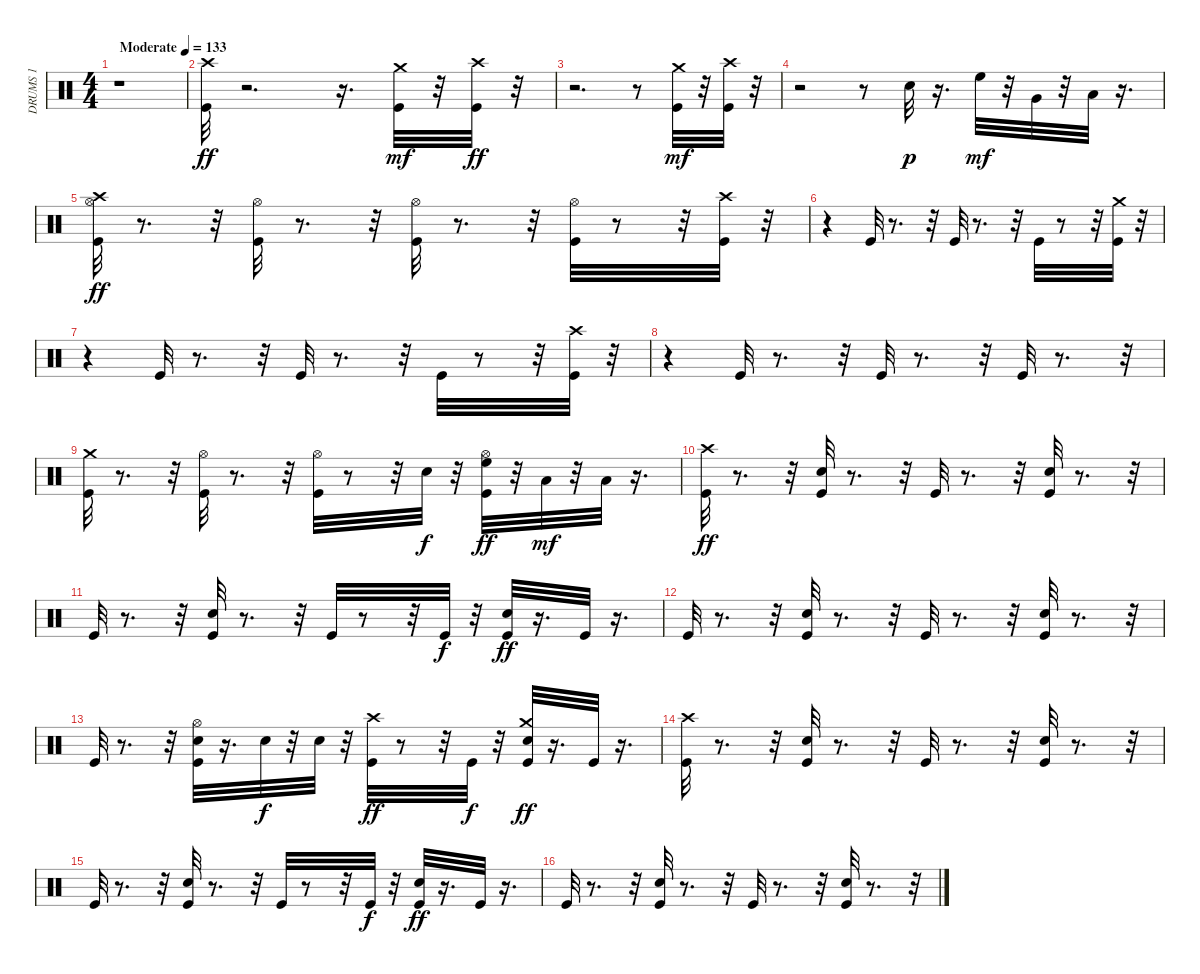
\track ("DRUMS 1                             " "DRUMS 1   ") {instrument percussion}
\staff {score}
\articulation defaults
\ts (4 4)
\tempo (133 "Moderate")
\clef neutral
\ks c
r.1{dy ff} |
("Crash high (hit)" "Kick (hit)").32 r.2{d} r.16{d} ("Crash medium (hit)" "Kick (hit)").32{dy mf} r.32 ("Crash high (hit)" "Kick (hit)").32{dy ff} r.32 |
r.2{d} r.8 ("Kick (hit)" "Crash medium (hit)").32{dy mf} r.32 ("Kick (hit)" "Crash high (hit)").32 r.32 |
r.2 r.8 "Electric Snare (hit)".32{dy p} r.16{d} "High Floor Tom (hit)".32{dy mf} r.32 "Very Low Tom (hit)".32 r.32 "Low Floor Tom (hit)".32 r.16{d} |
("Hi-Hat (open)" "Crash high (hit)" "Kick (hit)").32{dy ff} r.8{d} r.32 ("Hi-Hat (open)" "Kick (hit)").32 r.8{d} r.32 ("Hi-Hat (open)" "Kick (hit)").32 r.8{d} r.32 ("Hi-Hat (open)" "Kick (hit)").32 r.8 r.32 ("Crash high (hit)" "Kick (hit)").32 r.32 |
r.4 "Kick (hit)".32 r.8{d} r.32 "Kick (hit)".32 r.8{d} r.32 "Kick (hit)".32 r.8 r.32 ("Crash medium (hit)" "Kick (hit)").32 r.32 |
r.4 "Kick (hit)".32 r.8{d} r.32 "Kick (hit)".32 r.8{d} r.32 "Kick (hit)".32 r.8 r.32 ("Crash high (hit)" "Kick (hit)").32 r.32 |
r.4 "Kick (hit)".32 r.8{d} r.32 "Kick (hit)".32 r.8{d} r.32 "Kick (hit)".32 r.8{d} r.32 |
("Crash medium (hit)" "Kick (hit)").32 r.8{d} r.32 ("Hi-Hat (open)" "Kick (hit)").32 r.8{d} r.32 ("Hi-Hat (open)" "Kick (hit)").32 r.8 r.32 "Electric Snare (hit)".32{dy f} r.32 ("Hi-Hat (open)" "High Floor Tom (hit)" "Kick (hit)").32{dy ff} r.32 "Low Tom (hit)".32{dy mf} r.32 "Low Floor Tom (hit)".32 r.16{d} |
("Crash high (hit)" "Kick (hit)").32{dy ff} r.8{d} r.32 ("Electric Snare (hit)" "Kick (hit)").32 r.8{d} r.32 "Kick (hit)".32 r.8{d} r.32 ("Electric Snare (hit)" "Kick (hit)").32 r.8{d} r.32 |
"Kick (hit)".32 r.8{d} r.32 ("Electric Snare (hit)" "Kick (hit)").32 r.8{d} r.32 "Kick (hit)".32 r.8 r.32 "Kick (hit)".32{dy f} r.32 ("Electric Snare (hit)" "Kick (hit)").32{dy ff} r.16{d} "Kick (hit)".32 r.16{d} |
"Kick (hit)".32 r.8{d} r.32 ("Electric Snare (hit)" "Kick (hit)").32 r.8{d} r.32 "Kick (hit)".32 r.8{d} r.32 ("Electric Snare (hit)" "Kick (hit)").32 r.8{d} r.32 |
"Kick (hit)".32 r.8{d} r.32 ("Hi-Hat (open)" "Electric Snare (hit)" "Kick (hit)").32 r.16{d} "Electric Snare (hit)".32{dy f} r.32 "Electric Snare (hit)".32 r.32 ("Crash high (hit)" "Kick (hit)").32{dy ff} r.8 r.32 "Kick (hit)".32{dy f} r.32 ("Crash medium (hit)" "Electric Snare (hit)" "Kick (hit)").32{dy ff} r.16{d} "Kick (hit)".32 r.16{d} |
("Crash high (hit)" "Kick (hit)").32 r.8{d} r.32 ("Electric Snare (hit)" "Kick (hit)").32 r.8{d} r.32 "Kick (hit)".32 r.8{d} r.32 ("Electric Snare (hit)" "Kick (hit)").32 r.8{d} r.32 |
"Kick (hit)".32 r.8{d} r.32 ("Electric Snare (hit)" "Kick (hit)").32 r.8{d} r.32 "Kick (hit)".32 r.8 r.32 "Kick (hit)".32{dy f} r.32 ("Electric Snare (hit)" "Kick (hit)").32{dy ff} r.16{d} "Kick (hit)".32 r.16{d} |
"Kick (hit)".32 r.8{d} r.32 ("Electric Snare (hit)" "Kick (hit)").32 r.8{d} r.32 "Kick (hit)".32 r.8{d} r.32 ("Electric Snare (hit)" "Kick (hit)").32 r.8{d} r.32
